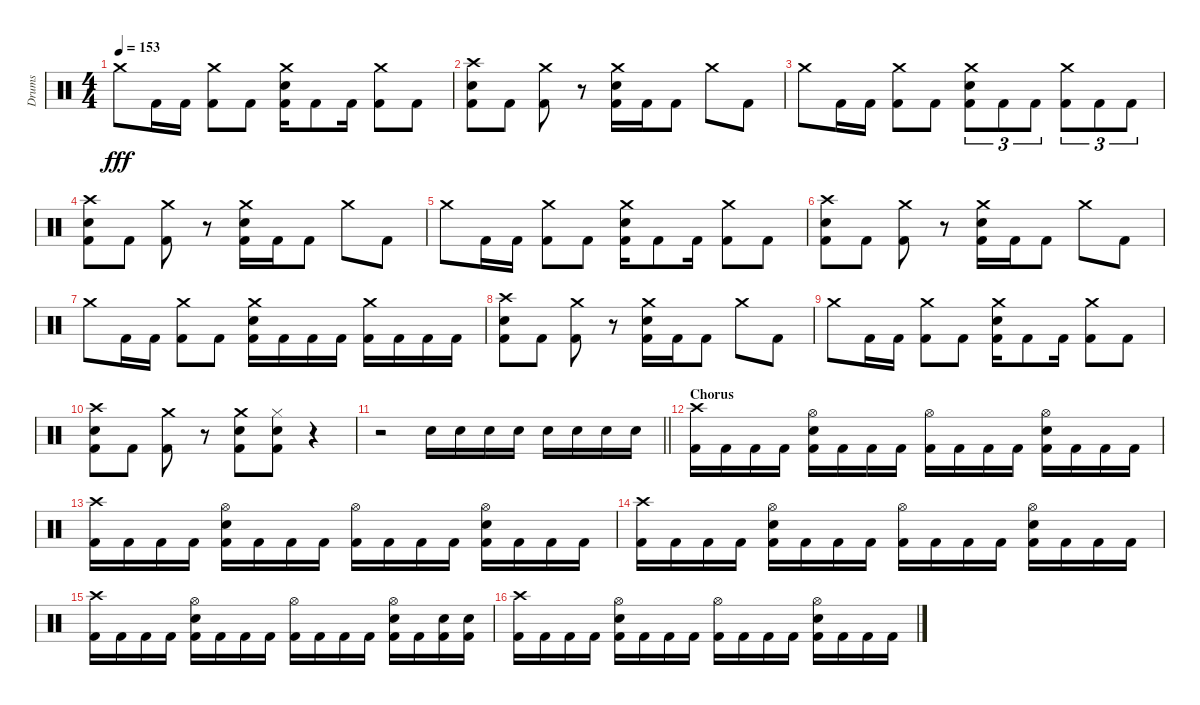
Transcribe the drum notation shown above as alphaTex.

\track ("Drums" "Drums") {instrument percussion}
\staff {score}
\articulation defaults
\ts (4 4)
\tempo 153
\clef neutral
\ks c "Crash medium (hit)".8{dy fff} "Kick (hit) 2".16 "Kick (hit) 2".16
("Crash medium (hit)" "Kick (hit) 2").8 "Kick (hit) 2".8 ("Snare (hit) 2" "Crash medium (hit)" "Kick (hit) 2").16 "Kick (hit) 2".8 "Kick (hit) 2".16 ("Crash medium (hit)" "Kick (hit) 2").8 "Kick (hit) 2".8 |
("Crash high (hit)" "Snare (hit) 2" "Kick (hit) 2").8 "Kick (hit) 2".8 ("Crash medium (hit)" "Kick (hit) 2").8 r.8 ("Snare (hit) 2" "Crash medium (hit)" "Kick (hit) 2").16 "Kick (hit) 2".16 "Kick (hit) 2".8 "Crash medium (hit)".8 "Kick (hit) 2".8 |
"Crash medium (hit)".8 "Kick (hit) 2".16 "Kick (hit) 2".16 ("Crash medium (hit)" "Kick (hit) 2").8 "Kick (hit) 2".8 ("Snare (hit) 2" "Crash medium (hit)" "Kick (hit) 2").8{tu (3 2)} "Kick (hit) 2".8{tu (3 2)} "Kick (hit) 2".8{tu (3 2)} ("Crash medium (hit)" "Kick (hit) 2").8{tu (3 2)} "Kick (hit) 2".8{tu (3 2)} "Kick (hit) 2".8{tu (3 2)} |
("Crash high (hit)" "Snare (hit) 2" "Kick (hit) 2").8 "Kick (hit) 2".8 ("Crash medium (hit)" "Kick (hit) 2").8 r.8 ("Snare (hit) 2" "Crash medium (hit)" "Kick (hit) 2").16 "Kick (hit) 2".16 "Kick (hit) 2".8 "Crash medium (hit)".8 "Kick (hit) 2".8 |
"Crash medium (hit)".8 "Kick (hit) 2".16 "Kick (hit) 2".16 ("Crash medium (hit)" "Kick (hit) 2").8 "Kick (hit) 2".8 ("Snare (hit) 2" "Crash medium (hit)" "Kick (hit) 2").16 "Kick (hit) 2".8 "Kick (hit) 2".16 ("Crash medium (hit)" "Kick (hit) 2").8 "Kick (hit) 2".8 |
("Crash high (hit)" "Snare (hit) 2" "Kick (hit) 2").8 "Kick (hit) 2".8 ("Crash medium (hit)" "Kick (hit) 2").8 r.8 ("Snare (hit) 2" "Crash medium (hit)" "Kick (hit) 2").16 "Kick (hit) 2".16 "Kick (hit) 2".8 "Crash medium (hit)".8 "Kick (hit) 2".8 |
"Crash medium (hit)".8 "Kick (hit) 2".16 "Kick (hit) 2".16 ("Crash medium (hit)" "Kick (hit) 2").8 "Kick (hit) 2".8 ("Snare (hit) 2" "Crash medium (hit)" "Kick (hit) 2").16 "Kick (hit) 2".16 "Kick (hit) 2".16 "Kick (hit) 2".16 ("Crash medium (hit)" "Kick (hit) 2").16 "Kick (hit) 2".16 "Kick (hit) 2".16 "Kick (hit) 2".16 |
("Crash high (hit)" "Snare (hit) 2" "Kick (hit) 2").8 "Kick (hit) 2".8 ("Crash medium (hit)" "Kick (hit) 2").8 r.8 ("Snare (hit) 2" "Crash medium (hit)" "Kick (hit) 2").16 "Kick (hit) 2".16 "Kick (hit) 2".8 "Crash medium (hit)".8 "Kick (hit) 2".8 |
"Crash medium (hit)".8 "Kick (hit) 2".16 "Kick (hit) 2".16 ("Crash medium (hit)" "Kick (hit) 2").8 "Kick (hit) 2".8 ("Snare (hit) 2" "Crash medium (hit)" "Kick (hit) 2").16 "Kick (hit) 2".8 "Kick (hit) 2".16 ("Crash medium (hit)" "Kick (hit) 2").8 "Kick (hit) 2".8 |
("Crash high (hit)" "Snare (hit) 2" "Kick (hit) 2").8 "Kick (hit) 2".8 ("Crash medium (hit)" "Kick (hit) 2").8 r.8 ("Snare (hit) 2" "Crash medium (hit)" "Kick (hit) 2").8 ("Snare (hit) 2" "Hi-Hat (closed)" "Kick (hit) 2").8 r.4 |
\barLineRight lightlight
r.2 "Snare (hit) 2".16 "Snare (hit) 2".16 "Snare (hit) 2".16 "Snare (hit) 2".16 "Snare (hit) 2".16 "Snare (hit) 2".16 "Snare (hit) 2".16 "Snare (hit) 2".16 |
\section ("" "Chorus")
("Crash high (hit)" "Kick (hit) 2").16 "Kick (hit) 2".16 "Kick (hit) 2".16 "Kick (hit) 2".16 ("Hi-Hat (open)" "Snare (hit) 2" "Kick (hit) 2").16 "Kick (hit) 2".16 "Kick (hit) 2".16 "Kick (hit) 2".16 ("Hi-Hat (open)" "Kick (hit) 2").16 "Kick (hit) 2".16 "Kick (hit) 2".16 "Kick (hit) 2".16 ("Hi-Hat (open)" "Snare (hit) 2" "Kick (hit) 2").16 "Kick (hit) 2".16 "Kick (hit) 2".16 "Kick (hit) 2".16 |
("Crash high (hit)" "Kick (hit) 2").16 "Kick (hit) 2".16 "Kick (hit) 2".16 "Kick (hit) 2".16 ("Hi-Hat (open)" "Snare (hit) 2" "Kick (hit) 2").16 "Kick (hit) 2".16 "Kick (hit) 2".16 "Kick (hit) 2".16 ("Hi-Hat (open)" "Kick (hit) 2").16 "Kick (hit) 2".16 "Kick (hit) 2".16 "Kick (hit) 2".16 ("Hi-Hat (open)" "Snare (hit) 2" "Kick (hit) 2").16 "Kick (hit) 2".16 "Kick (hit) 2".16 "Kick (hit) 2".16 |
("Crash high (hit)" "Kick (hit) 2").16 "Kick (hit) 2".16 "Kick (hit) 2".16 "Kick (hit) 2".16 ("Hi-Hat (open)" "Snare (hit) 2" "Kick (hit) 2").16 "Kick (hit) 2".16 "Kick (hit) 2".16 "Kick (hit) 2".16 ("Hi-Hat (open)" "Kick (hit) 2").16 "Kick (hit) 2".16 "Kick (hit) 2".16 "Kick (hit) 2".16 ("Hi-Hat (open)" "Snare (hit) 2" "Kick (hit) 2").16 "Kick (hit) 2".16 "Kick (hit) 2".16 "Kick (hit) 2".16 |
("Crash high (hit)" "Kick (hit) 2").16 "Kick (hit) 2".16 "Kick (hit) 2".16 "Kick (hit) 2".16 ("Hi-Hat (open)" "Snare (hit) 2" "Kick (hit) 2").16 "Kick (hit) 2".16 "Kick (hit) 2".16 "Kick (hit) 2".16 ("Hi-Hat (open)" "Kick (hit) 2").16 "Kick (hit) 2".16 "Kick (hit) 2".16 "Kick (hit) 2".16 ("Hi-Hat (open)" "Snare (hit) 2" "Kick (hit) 2").16 "Kick (hit) 2".16 ("Snare (hit) 2" "Kick (hit) 2").16 ("Snare (hit) 2" "Kick (hit) 2").16 |
("Crash high (hit)" "Kick (hit) 2").16 "Kick (hit) 2".16 "Kick (hit) 2".16 "Kick (hit) 2".16 ("Hi-Hat (open)" "Snare (hit) 2" "Kick (hit) 2").16 "Kick (hit) 2".16 "Kick (hit) 2".16 "Kick (hit) 2".16 ("Hi-Hat (open)" "Kick (hit) 2").16 "Kick (hit) 2".16 "Kick (hit) 2".16 "Kick (hit) 2".16 ("Hi-Hat (open)" "Snare (hit) 2" "Kick (hit) 2").16 "Kick (hit) 2".16 "Kick (hit) 2".16 "Kick (hit) 2".16
